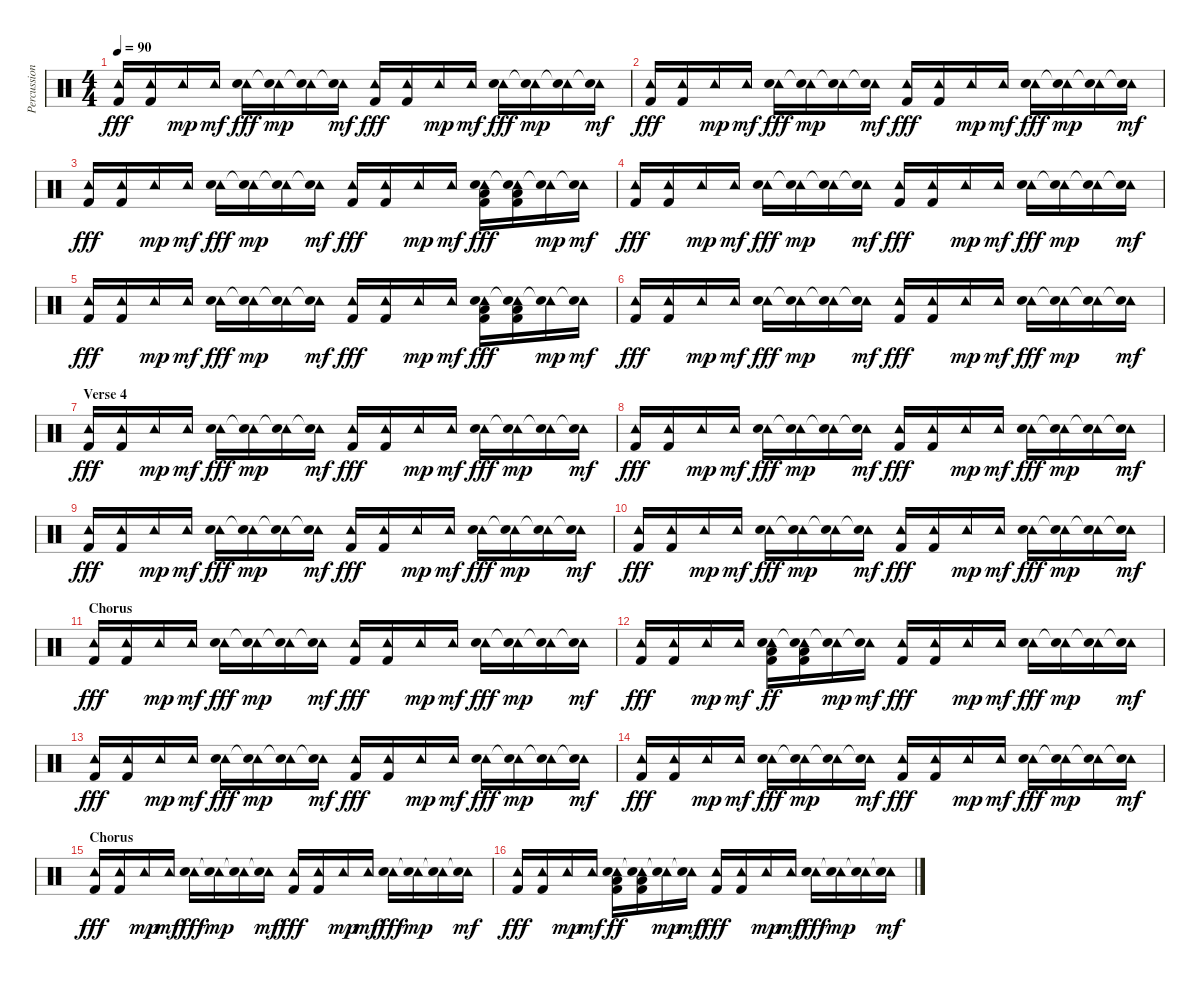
\track ("Percussion" "Percussion") {instrument percussion}
\staff {score}
\articulation defaults
\ts (4 4)
\tempo 90
\clef neutral
\ks c
("Tambourine (hit)" "Kick (hit) 2").16{dy fff} ("Tambourine (hit)" "Kick (hit) 2").16 "Tambourine (hit)".16{dy mp} "Tambourine (hit)".16{dy mf} ("Tambourine (hit)" "Hand Clap (hit)").16{dy fff} ("Tambourine (hit)" "Snare (hit)"{t}).16{dy mp} ("Tambourine (hit)" "Snare (hit)"{t}).16 ("Tambourine (hit)" "Snare (hit)"{t}).16{dy mf} ("Tambourine (hit)" "Kick (hit) 2").16{dy fff} ("Tambourine (hit)" "Kick (hit) 2").16 "Tambourine (hit)".16{dy mp} "Tambourine (hit)".16{dy mf} ("Tambourine (hit)" "Hand Clap (hit)").16{dy fff} ("Tambourine (hit)" "Snare (hit)"{t}).16{dy mp} ("Tambourine (hit)" "Snare (hit)"{t}).16 ("Tambourine (hit)" "Snare (hit)"{t}).16{dy mf} |
("Tambourine (hit)" "Kick (hit) 2").16{dy fff} ("Tambourine (hit)" "Kick (hit) 2").16 "Tambourine (hit)".16{dy mp} "Tambourine (hit)".16{dy mf} ("Tambourine (hit)" "Hand Clap (hit)").16{dy fff} ("Tambourine (hit)" "Snare (hit)"{t}).16{dy mp} ("Tambourine (hit)" "Snare (hit)"{t}).16 ("Tambourine (hit)" "Snare (hit)"{t}).16{dy mf} ("Tambourine (hit)" "Kick (hit) 2").16{dy fff} ("Tambourine (hit)" "Kick (hit) 2").16 "Tambourine (hit)".16{dy mp} "Tambourine (hit)".16{dy mf} ("Tambourine (hit)" "Hand Clap (hit)").16{dy fff} ("Tambourine (hit)" "Snare (hit)"{t}).16{dy mp} ("Tambourine (hit)" "Snare (hit)"{t}).16 ("Tambourine (hit)" "Snare (hit)"{t}).16{dy mf} |
("Tambourine (hit)" "Kick (hit) 2").16{dy fff} ("Tambourine (hit)" "Kick (hit) 2").16 "Tambourine (hit)".16{dy mp} "Tambourine (hit)".16{dy mf} ("Tambourine (hit)" "Hand Clap (hit)").16{dy fff} ("Tambourine (hit)" "Snare (hit)"{t}).16{dy mp} ("Tambourine (hit)" "Snare (hit)"{t}).16 ("Tambourine (hit)" "Snare (hit)"{t}).16{dy mf} ("Tambourine (hit)" "Kick (hit) 2").16{dy fff} ("Tambourine (hit)" "Kick (hit) 2").16 "Tambourine (hit)".16{dy mp} "Tambourine (hit)".16{dy mf} ("Tambourine (hit)" "Hand Clap (hit)" "Low Floor Tom (hit)" "Kick (hit) 2").16{dy fff} ("Tambourine (hit)" "Snare (hit)"{t} "Low Floor Tom (hit)" "Kick (hit) 2").16 ("Tambourine (hit)" "Snare (hit)"{t}).16{dy mp} ("Tambourine (hit)" "Snare (hit)"{t}).16{dy mf} |
("Tambourine (hit)" "Kick (hit) 2").16{dy fff} ("Tambourine (hit)" "Kick (hit) 2").16 "Tambourine (hit)".16{dy mp} "Tambourine (hit)".16{dy mf} ("Tambourine (hit)" "Hand Clap (hit)").16{dy fff} ("Tambourine (hit)" "Snare (hit)"{t}).16{dy mp} ("Tambourine (hit)" "Snare (hit)"{t}).16 ("Tambourine (hit)" "Snare (hit)"{t}).16{dy mf} ("Tambourine (hit)" "Kick (hit) 2").16{dy fff} ("Tambourine (hit)" "Kick (hit) 2").16 "Tambourine (hit)".16{dy mp} "Tambourine (hit)".16{dy mf} ("Tambourine (hit)" "Hand Clap (hit)").16{dy fff} ("Tambourine (hit)" "Snare (hit)"{t}).16{dy mp} ("Tambourine (hit)" "Snare (hit)"{t}).16 ("Tambourine (hit)" "Snare (hit)"{t}).16{dy mf} |
("Tambourine (hit)" "Kick (hit) 2").16{dy fff} ("Tambourine (hit)" "Kick (hit) 2").16 "Tambourine (hit)".16{dy mp} "Tambourine (hit)".16{dy mf} ("Tambourine (hit)" "Hand Clap (hit)").16{dy fff} ("Tambourine (hit)" "Snare (hit)"{t}).16{dy mp} ("Tambourine (hit)" "Snare (hit)"{t}).16 ("Tambourine (hit)" "Snare (hit)"{t}).16{dy mf} ("Tambourine (hit)" "Kick (hit) 2").16{dy fff} ("Tambourine (hit)" "Kick (hit) 2").16 "Tambourine (hit)".16{dy mp} "Tambourine (hit)".16{dy mf} ("Tambourine (hit)" "Hand Clap (hit)" "Low Floor Tom (hit)" "Kick (hit) 2").16{dy fff} ("Tambourine (hit)" "Snare (hit)"{t} "Low Floor Tom (hit)" "Kick (hit) 2").16 ("Tambourine (hit)" "Snare (hit)"{t}).16{dy mp} ("Tambourine (hit)" "Snare (hit)"{t}).16{dy mf} |
("Tambourine (hit)" "Kick (hit) 2").16{dy fff} ("Tambourine (hit)" "Kick (hit) 2").16 "Tambourine (hit)".16{dy mp} "Tambourine (hit)".16{dy mf} ("Tambourine (hit)" "Hand Clap (hit)").16{dy fff} ("Tambourine (hit)" "Snare (hit)"{t}).16{dy mp} ("Tambourine (hit)" "Snare (hit)"{t}).16 ("Tambourine (hit)" "Snare (hit)"{t}).16{dy mf} ("Tambourine (hit)" "Kick (hit) 2").16{dy fff} ("Tambourine (hit)" "Kick (hit) 2").16 "Tambourine (hit)".16{dy mp} "Tambourine (hit)".16{dy mf} ("Tambourine (hit)" "Hand Clap (hit)").16{dy fff} ("Tambourine (hit)" "Snare (hit)"{t}).16{dy mp} ("Tambourine (hit)" "Snare (hit)"{t}).16 ("Tambourine (hit)" "Snare (hit)"{t}).16{dy mf} |
\section ("" "Verse 4")
("Tambourine (hit)" "Kick (hit) 2").16{dy fff} ("Tambourine (hit)" "Kick (hit) 2").16 "Tambourine (hit)".16{dy mp} "Tambourine (hit)".16{dy mf} ("Tambourine (hit)" "Hand Clap (hit)").16{dy fff} ("Tambourine (hit)" "Snare (hit)"{t}).16{dy mp} ("Tambourine (hit)" "Snare (hit)"{t}).16 ("Tambourine (hit)" "Snare (hit)"{t}).16{dy mf} ("Tambourine (hit)" "Kick (hit) 2").16{dy fff} ("Tambourine (hit)" "Kick (hit) 2").16 "Tambourine (hit)".16{dy mp} "Tambourine (hit)".16{dy mf} ("Tambourine (hit)" "Hand Clap (hit)").16{dy fff} ("Tambourine (hit)" "Snare (hit)"{t}).16{dy mp} ("Tambourine (hit)" "Snare (hit)"{t}).16 ("Tambourine (hit)" "Snare (hit)"{t}).16{dy mf} |
("Tambourine (hit)" "Kick (hit) 2").16{dy fff} ("Tambourine (hit)" "Kick (hit) 2").16 "Tambourine (hit)".16{dy mp} "Tambourine (hit)".16{dy mf} ("Tambourine (hit)" "Hand Clap (hit)").16{dy fff} ("Tambourine (hit)" "Snare (hit)"{t}).16{dy mp} ("Tambourine (hit)" "Snare (hit)"{t}).16 ("Tambourine (hit)" "Snare (hit)"{t}).16{dy mf} ("Tambourine (hit)" "Kick (hit) 2").16{dy fff} ("Tambourine (hit)" "Kick (hit) 2").16 "Tambourine (hit)".16{dy mp} "Tambourine (hit)".16{dy mf} ("Tambourine (hit)" "Hand Clap (hit)").16{dy fff} ("Tambourine (hit)" "Snare (hit)"{t}).16{dy mp} ("Tambourine (hit)" "Snare (hit)"{t}).16 ("Tambourine (hit)" "Snare (hit)"{t}).16{dy mf} |
("Tambourine (hit)" "Kick (hit) 2").16{dy fff} ("Tambourine (hit)" "Kick (hit) 2").16 "Tambourine (hit)".16{dy mp} "Tambourine (hit)".16{dy mf} ("Tambourine (hit)" "Hand Clap (hit)").16{dy fff} ("Tambourine (hit)" "Snare (hit)"{t}).16{dy mp} ("Tambourine (hit)" "Snare (hit)"{t}).16 ("Tambourine (hit)" "Snare (hit)"{t}).16{dy mf} ("Tambourine (hit)" "Kick (hit) 2").16{dy fff} ("Tambourine (hit)" "Kick (hit) 2").16 "Tambourine (hit)".16{dy mp} "Tambourine (hit)".16{dy mf} ("Tambourine (hit)" "Hand Clap (hit)").16{dy fff} ("Tambourine (hit)" "Snare (hit)"{t}).16{dy mp} ("Tambourine (hit)" "Snare (hit)"{t}).16 ("Tambourine (hit)" "Snare (hit)"{t}).16{dy mf} |
("Tambourine (hit)" "Kick (hit) 2").16{dy fff} ("Tambourine (hit)" "Kick (hit) 2").16 "Tambourine (hit)".16{dy mp} "Tambourine (hit)".16{dy mf} ("Tambourine (hit)" "Hand Clap (hit)").16{dy fff} ("Tambourine (hit)" "Snare (hit)"{t}).16{dy mp} ("Tambourine (hit)" "Snare (hit)"{t}).16 ("Tambourine (hit)" "Snare (hit)"{t}).16{dy mf} ("Tambourine (hit)" "Kick (hit) 2").16{dy fff} ("Tambourine (hit)" "Kick (hit) 2").16 "Tambourine (hit)".16{dy mp} "Tambourine (hit)".16{dy mf} ("Tambourine (hit)" "Hand Clap (hit)").16{dy fff} ("Tambourine (hit)" "Snare (hit)"{t}).16{dy mp} ("Tambourine (hit)" "Snare (hit)"{t}).16 ("Tambourine (hit)" "Snare (hit)"{t}).16{dy mf} |
\section ("" "Chorus")
("Tambourine (hit)" "Kick (hit) 2").16{dy fff} ("Tambourine (hit)" "Kick (hit) 2").16 "Tambourine (hit)".16{dy mp} "Tambourine (hit)".16{dy mf} ("Tambourine (hit)" "Hand Clap (hit)").16{dy fff} ("Tambourine (hit)" "Snare (hit)"{t}).16{dy mp} ("Tambourine (hit)" "Snare (hit)"{t}).16 ("Tambourine (hit)" "Snare (hit)"{t}).16{dy mf} ("Tambourine (hit)" "Kick (hit) 2").16{dy fff} ("Tambourine (hit)" "Kick (hit) 2").16 "Tambourine (hit)".16{dy mp} "Tambourine (hit)".16{dy mf} ("Tambourine (hit)" "Hand Clap (hit)").16{dy fff} ("Tambourine (hit)" "Snare (hit)"{t}).16{dy mp} ("Tambourine (hit)" "Snare (hit)"{t}).16 ("Tambourine (hit)" "Snare (hit)"{t}).16{dy mf} |
("Tambourine (hit)" "Kick (hit) 2").16{dy fff} ("Tambourine (hit)" "Kick (hit) 2").16 "Tambourine (hit)".16{dy mp} "Tambourine (hit)".16{dy mf} ("Tambourine (hit)" "Hand Clap (hit)" "Low Floor Tom (hit)" "Kick (hit) 2").16{dy ff} ("Tambourine (hit)" "Snare (hit)"{t} "Low Floor Tom (hit)" "Kick (hit) 2").16 ("Tambourine (hit)" "Snare (hit)"{t}).16{dy mp} ("Tambourine (hit)" "Snare (hit)"{t}).16{dy mf} ("Tambourine (hit)" "Kick (hit) 2").16{dy fff} ("Tambourine (hit)" "Kick (hit) 2").16 "Tambourine (hit)".16{dy mp} "Tambourine (hit)".16{dy mf} ("Tambourine (hit)" "Hand Clap (hit)").16{dy fff} ("Tambourine (hit)" "Snare (hit)"{t}).16{dy mp} ("Tambourine (hit)" "Snare (hit)"{t}).16 ("Tambourine (hit)" "Snare (hit)"{t}).16{dy mf} |
("Tambourine (hit)" "Kick (hit) 2").16{dy fff} ("Tambourine (hit)" "Kick (hit) 2").16 "Tambourine (hit)".16{dy mp} "Tambourine (hit)".16{dy mf} ("Tambourine (hit)" "Hand Clap (hit)").16{dy fff} ("Tambourine (hit)" "Snare (hit)"{t}).16{dy mp} ("Tambourine (hit)" "Snare (hit)"{t}).16 ("Tambourine (hit)" "Snare (hit)"{t}).16{dy mf} ("Tambourine (hit)" "Kick (hit) 2").16{dy fff} ("Tambourine (hit)" "Kick (hit) 2").16 "Tambourine (hit)".16{dy mp} "Tambourine (hit)".16{dy mf} ("Tambourine (hit)" "Hand Clap (hit)").16{dy fff} ("Tambourine (hit)" "Snare (hit)"{t}).16{dy mp} ("Tambourine (hit)" "Snare (hit)"{t}).16 ("Tambourine (hit)" "Snare (hit)"{t}).16{dy mf} |
("Tambourine (hit)" "Kick (hit) 2").16{dy fff} ("Tambourine (hit)" "Kick (hit) 2").16 "Tambourine (hit)".16{dy mp} "Tambourine (hit)".16{dy mf} ("Tambourine (hit)" "Hand Clap (hit)").16{dy fff} ("Tambourine (hit)" "Snare (hit)"{t}).16{dy mp} ("Tambourine (hit)" "Snare (hit)"{t}).16 ("Tambourine (hit)" "Snare (hit)"{t}).16{dy mf} ("Tambourine (hit)" "Kick (hit) 2").16{dy fff} ("Tambourine (hit)" "Kick (hit) 2").16 "Tambourine (hit)".16{dy mp} "Tambourine (hit)".16{dy mf} ("Tambourine (hit)" "Hand Clap (hit)").16{dy fff} ("Tambourine (hit)" "Snare (hit)"{t}).16{dy mp} ("Tambourine (hit)" "Snare (hit)"{t}).16 ("Tambourine (hit)" "Snare (hit)"{t}).16{dy mf} |
\section ("" "Chorus")
("Tambourine (hit)" "Kick (hit) 2").16{dy fff} ("Tambourine (hit)" "Kick (hit) 2").16 "Tambourine (hit)".16{dy mp} "Tambourine (hit)".16{dy mf} ("Tambourine (hit)" "Hand Clap (hit)").16{dy fff} ("Tambourine (hit)" "Snare (hit)"{t}).16{dy mp} ("Tambourine (hit)" "Snare (hit)"{t}).16 ("Tambourine (hit)" "Snare (hit)"{t}).16{dy mf} ("Tambourine (hit)" "Kick (hit) 2").16{dy fff} ("Tambourine (hit)" "Kick (hit) 2").16 "Tambourine (hit)".16{dy mp} "Tambourine (hit)".16{dy mf} ("Tambourine (hit)" "Hand Clap (hit)").16{dy fff} ("Tambourine (hit)" "Snare (hit)"{t}).16{dy mp} ("Tambourine (hit)" "Snare (hit)"{t}).16 ("Tambourine (hit)" "Snare (hit)"{t}).16{dy mf} |
("Tambourine (hit)" "Kick (hit) 2").16{dy fff} ("Tambourine (hit)" "Kick (hit) 2").16 "Tambourine (hit)".16{dy mp} "Tambourine (hit)".16{dy mf} ("Tambourine (hit)" "Hand Clap (hit)" "Low Floor Tom (hit)" "Kick (hit) 2").16{dy ff} ("Tambourine (hit)" "Snare (hit)"{t} "Low Floor Tom (hit)" "Kick (hit) 2").16 ("Tambourine (hit)" "Snare (hit)"{t}).16{dy mp} ("Tambourine (hit)" "Snare (hit)"{t}).16{dy mf} ("Tambourine (hit)" "Kick (hit) 2").16{dy fff} ("Tambourine (hit)" "Kick (hit) 2").16 "Tambourine (hit)".16{dy mp} "Tambourine (hit)".16{dy mf} ("Tambourine (hit)" "Hand Clap (hit)").16{dy fff} ("Tambourine (hit)" "Snare (hit)"{t}).16{dy mp} ("Tambourine (hit)" "Snare (hit)"{t}).16 ("Tambourine (hit)" "Snare (hit)"{t}).16{dy mf}
